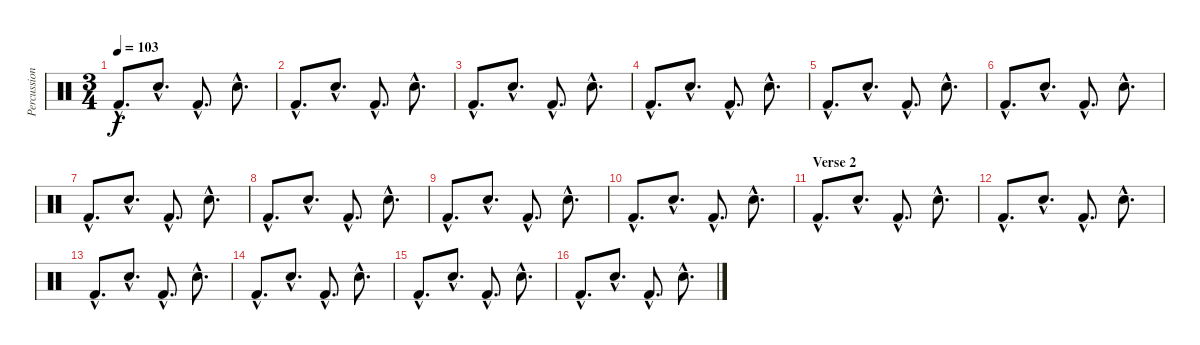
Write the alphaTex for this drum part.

\track ("Percussion" "Percussion") {instrument percussion}
\staff {score}
\articulation defaults
\ts (3 4)
\tempo 103
\clef neutral
\ks c "Kick (hit) 2"{hac}.8{d dy f} "Electric Snare (hit)"{hac}.8{d} "Kick (hit) 2"{hac}.8{d} "Electric Snare (hit)"{hac}.8{d}
|
"Kick (hit) 2"{hac}.8{d} "Electric Snare (hit)"{hac}.8{d} "Kick (hit) 2"{hac}.8{d} "Electric Snare (hit)"{hac}.8{d} |
"Kick (hit) 2"{hac}.8{d} "Electric Snare (hit)"{hac}.8{d} "Kick (hit) 2"{hac}.8{d} "Electric Snare (hit)"{hac}.8{d} |
"Kick (hit) 2"{hac}.8{d} "Electric Snare (hit)"{hac}.8{d} "Kick (hit) 2"{hac}.8{d} "Electric Snare (hit)"{hac}.8{d} |
"Kick (hit) 2"{hac}.8{d} "Electric Snare (hit)"{hac}.8{d} "Kick (hit) 2"{hac}.8{d} "Electric Snare (hit)"{hac}.8{d} |
"Kick (hit) 2"{hac}.8{d} "Electric Snare (hit)"{hac}.8{d} "Kick (hit) 2"{hac}.8{d} "Electric Snare (hit)"{hac}.8{d} |
"Kick (hit) 2"{hac}.8{d} "Electric Snare (hit)"{hac}.8{d} "Kick (hit) 2"{hac}.8{d} "Electric Snare (hit)"{hac}.8{d} |
"Kick (hit) 2"{hac}.8{d} "Electric Snare (hit)"{hac}.8{d} "Kick (hit) 2"{hac}.8{d} "Electric Snare (hit)"{hac}.8{d} |
"Kick (hit) 2"{hac}.8{d} "Electric Snare (hit)"{hac}.8{d} "Kick (hit) 2"{hac}.8{d} "Electric Snare (hit)"{hac}.8{d} |
"Kick (hit) 2"{hac}.8{d} "Electric Snare (hit)"{hac}.8{d} "Kick (hit) 2"{hac}.8{d} "Electric Snare (hit)"{hac}.8{d} |
\section ("" "Verse 2")
"Kick (hit) 2"{hac}.8{d} "Electric Snare (hit)"{hac}.8{d} "Kick (hit) 2"{hac}.8{d} "Electric Snare (hit)"{hac}.8{d} |
"Kick (hit) 2"{hac}.8{d} "Electric Snare (hit)"{hac}.8{d} "Kick (hit) 2"{hac}.8{d} "Electric Snare (hit)"{hac}.8{d} |
"Kick (hit) 2"{hac}.8{d} "Electric Snare (hit)"{hac}.8{d} "Kick (hit) 2"{hac}.8{d} "Electric Snare (hit)"{hac}.8{d} |
"Kick (hit) 2"{hac}.8{d} "Electric Snare (hit)"{hac}.8{d} "Kick (hit) 2"{hac}.8{d} "Electric Snare (hit)"{hac}.8{d} |
"Kick (hit) 2"{hac}.8{d} "Electric Snare (hit)"{hac}.8{d} "Kick (hit) 2"{hac}.8{d} "Electric Snare (hit)"{hac}.8{d} |
"Kick (hit) 2"{hac}.8{d} "Electric Snare (hit)"{hac}.8{d} "Kick (hit) 2"{hac}.8{d} "Electric Snare (hit)"{hac}.8{d}
